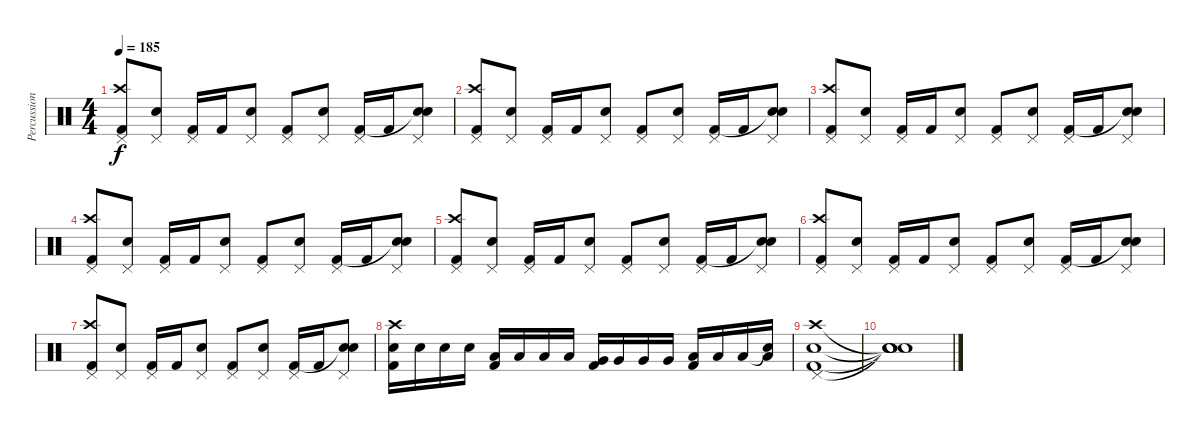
\track ("Percussions" "Percussion") {instrument percussion}
\staff {score}
\articulation defaults
\ts (4 4)
\tempo 185
\clef neutral
\ks c
("Pedal Hi-Hat (hit)" "Crash high (hit)" "Kick (hit) 2").8{dy f} ("Pedal Hi-Hat (hit)" "Snare (hit) 2").8 ("Pedal Hi-Hat (hit)" "Kick (hit) 2").16 "Kick (hit) 2".16 ("Pedal Hi-Hat (hit)" "Snare (hit) 2").8 ("Pedal Hi-Hat (hit)" "Kick (hit) 2").8 ("Pedal Hi-Hat (hit)" "Snare (hit) 2").8 ("Pedal Hi-Hat (hit)" "Kick (hit) 2").16 "Kick (hit) 2".16 ("Pedal Hi-Hat (hit)" "Snare (hit)"{t} "Snare (hit) 2").8 |
("Pedal Hi-Hat (hit)" "Crash high (hit)" "Kick (hit) 2").8 ("Pedal Hi-Hat (hit)" "Snare (hit) 2").8 ("Pedal Hi-Hat (hit)" "Kick (hit) 2").16 "Kick (hit) 2".16 ("Pedal Hi-Hat (hit)" "Snare (hit) 2").8 ("Pedal Hi-Hat (hit)" "Kick (hit) 2").8 ("Pedal Hi-Hat (hit)" "Snare (hit) 2").8 ("Pedal Hi-Hat (hit)" "Kick (hit) 2").16 "Kick (hit) 2".16 ("Pedal Hi-Hat (hit)" "Snare (hit)"{t} "Snare (hit) 2").8 |
("Pedal Hi-Hat (hit)" "Crash high (hit)" "Kick (hit) 2").8 ("Pedal Hi-Hat (hit)" "Snare (hit) 2").8 ("Pedal Hi-Hat (hit)" "Kick (hit) 2").16 "Kick (hit) 2".16 ("Pedal Hi-Hat (hit)" "Snare (hit) 2").8 ("Pedal Hi-Hat (hit)" "Kick (hit) 2").8 ("Pedal Hi-Hat (hit)" "Snare (hit) 2").8 ("Pedal Hi-Hat (hit)" "Kick (hit) 2").16 "Kick (hit) 2".16 ("Pedal Hi-Hat (hit)" "Snare (hit)"{t} "Snare (hit) 2").8 |
("Pedal Hi-Hat (hit)" "Crash high (hit)" "Kick (hit) 2").8 ("Pedal Hi-Hat (hit)" "Snare (hit) 2").8 ("Pedal Hi-Hat (hit)" "Kick (hit) 2").16 "Kick (hit) 2".16 ("Pedal Hi-Hat (hit)" "Snare (hit) 2").8 ("Pedal Hi-Hat (hit)" "Kick (hit) 2").8 ("Pedal Hi-Hat (hit)" "Snare (hit) 2").8 ("Pedal Hi-Hat (hit)" "Kick (hit) 2").16 "Kick (hit) 2".16 ("Pedal Hi-Hat (hit)" "Snare (hit)"{t} "Snare (hit) 2").8 |
("Pedal Hi-Hat (hit)" "Crash high (hit)" "Kick (hit) 2").8 ("Pedal Hi-Hat (hit)" "Snare (hit) 2").8 ("Pedal Hi-Hat (hit)" "Kick (hit) 2").16 "Kick (hit) 2".16 ("Pedal Hi-Hat (hit)" "Snare (hit) 2").8 ("Pedal Hi-Hat (hit)" "Kick (hit) 2").8 ("Pedal Hi-Hat (hit)" "Snare (hit) 2").8 ("Pedal Hi-Hat (hit)" "Kick (hit) 2").16 "Kick (hit) 2".16 ("Pedal Hi-Hat (hit)" "Snare (hit)"{t} "Snare (hit) 2").8 |
("Pedal Hi-Hat (hit)" "Crash high (hit)" "Kick (hit) 2").8 ("Pedal Hi-Hat (hit)" "Snare (hit) 2").8 ("Pedal Hi-Hat (hit)" "Kick (hit) 2").16 "Kick (hit) 2".16 ("Pedal Hi-Hat (hit)" "Snare (hit) 2").8 ("Pedal Hi-Hat (hit)" "Kick (hit) 2").8 ("Pedal Hi-Hat (hit)" "Snare (hit) 2").8 ("Pedal Hi-Hat (hit)" "Kick (hit) 2").16 "Kick (hit) 2".16 ("Pedal Hi-Hat (hit)" "Snare (hit)"{t} "Snare (hit) 2").8 |
("Pedal Hi-Hat (hit)" "Crash high (hit)" "Kick (hit) 2").8 ("Pedal Hi-Hat (hit)" "Snare (hit) 2").8 ("Pedal Hi-Hat (hit)" "Kick (hit) 2").16 "Kick (hit) 2".16 ("Pedal Hi-Hat (hit)" "Snare (hit) 2").8 ("Pedal Hi-Hat (hit)" "Kick (hit) 2").8 ("Pedal Hi-Hat (hit)" "Snare (hit) 2").8 ("Pedal Hi-Hat (hit)" "Kick (hit) 2").16 "Kick (hit) 2".16 ("Pedal Hi-Hat (hit)" "Snare (hit)"{t} "Snare (hit) 2").8 |
("Crash high (hit)" "Snare (hit) 2" "Kick (hit) 2").16 "Snare (hit) 2".16 "Snare (hit) 2".16 "Snare (hit) 2".16 ("Low Tom (hit)" "Kick (hit) 2").16 "Low Tom (hit)".16 "Low Tom (hit)".16 "Low Tom (hit)".16 ("Very Low Tom (hit)" "Kick (hit) 2").16 "Very Low Tom (hit)".16 "Very Low Tom (hit)".16 "Very Low Tom (hit)".16 ("Low Floor Tom (hit)" "Kick (hit) 2").16 "Low Floor Tom (hit)".16 "Low Floor Tom (hit)".16 ("Snare (hit)"{t} "Low Floor Tom (hit)").16 |
("Pedal Hi-Hat (hit)" "Crash high (hit)" "Snare (hit) 2" "Kick (hit) 2").1 |
("Snare (hit)"{t} "Snare (hit)"{t} "Snare (hit)"{t} "Snare (hit)"{t}).1
